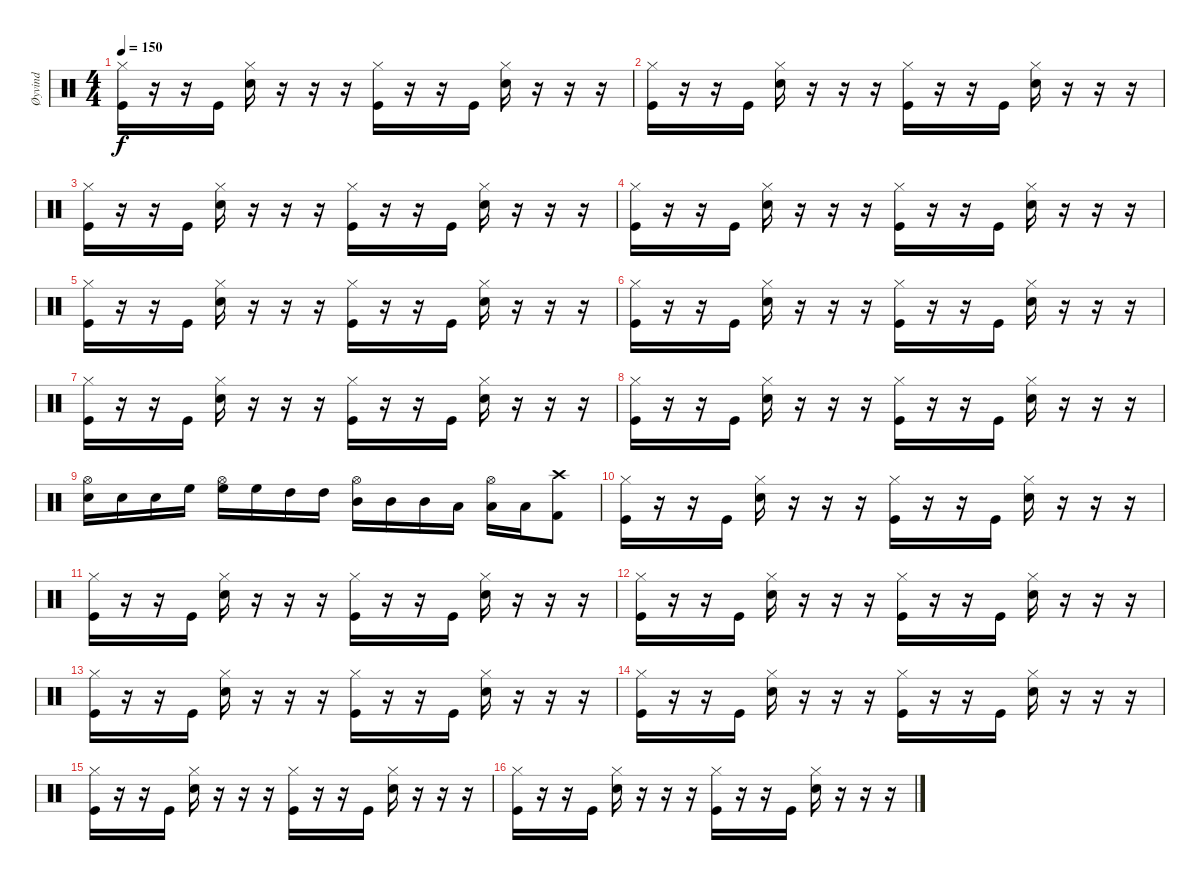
\track ("Øyvind" "Øyvind") {instrument percussion}
\staff {score}
\articulation defaults
\ts (4 4)
\tempo 150
\clef neutral
\ks c
("Kick (hit)" "Hi-Hat (closed)").16{dy f} r.16 r.16 "Kick (hit)".16 ("Electric Snare (hit)" "Hi-Hat (closed)").16 r.16 r.16 r.16 ("Kick (hit)" "Hi-Hat (closed)").16 r.16 r.16 "Kick (hit)".16 ("Electric Snare (hit)" "Hi-Hat (closed)").16 r.16 r.16 r.16 |
("Kick (hit)" "Hi-Hat (closed)").16 r.16 r.16 "Kick (hit)".16 ("Electric Snare (hit)" "Hi-Hat (closed)").16 r.16 r.16 r.16 ("Kick (hit)" "Hi-Hat (closed)").16 r.16 r.16 "Kick (hit)".16 ("Electric Snare (hit)" "Hi-Hat (closed)").16 r.16 r.16 r.16 |
("Kick (hit)" "Hi-Hat (closed)").16 r.16 r.16 "Kick (hit)".16 ("Electric Snare (hit)" "Hi-Hat (closed)").16 r.16 r.16 r.16 ("Kick (hit)" "Hi-Hat (closed)").16 r.16 r.16 "Kick (hit)".16 ("Electric Snare (hit)" "Hi-Hat (closed)").16 r.16 r.16 r.16 |
("Kick (hit)" "Hi-Hat (closed)").16 r.16 r.16 "Kick (hit)".16 ("Electric Snare (hit)" "Hi-Hat (closed)").16 r.16 r.16 r.16 ("Kick (hit)" "Hi-Hat (closed)").16 r.16 r.16 "Kick (hit)".16 ("Electric Snare (hit)" "Hi-Hat (closed)").16 r.16 r.16 r.16 |
("Kick (hit)" "Hi-Hat (closed)").16 r.16 r.16 "Kick (hit)".16 ("Electric Snare (hit)" "Hi-Hat (closed)").16 r.16 r.16 r.16 ("Kick (hit)" "Hi-Hat (closed)").16 r.16 r.16 "Kick (hit)".16 ("Electric Snare (hit)" "Hi-Hat (closed)").16 r.16 r.16 r.16 |
("Kick (hit)" "Hi-Hat (closed)").16 r.16 r.16 "Kick (hit)".16 ("Electric Snare (hit)" "Hi-Hat (closed)").16 r.16 r.16 r.16 ("Kick (hit)" "Hi-Hat (closed)").16 r.16 r.16 "Kick (hit)".16 ("Electric Snare (hit)" "Hi-Hat (closed)").16 r.16 r.16 r.16 |
("Kick (hit)" "Hi-Hat (closed)").16 r.16 r.16 "Kick (hit)".16 ("Electric Snare (hit)" "Hi-Hat (closed)").16 r.16 r.16 r.16 ("Kick (hit)" "Hi-Hat (closed)").16 r.16 r.16 "Kick (hit)".16 ("Electric Snare (hit)" "Hi-Hat (closed)").16 r.16 r.16 r.16 |
("Kick (hit)" "Hi-Hat (closed)").16 r.16 r.16 "Kick (hit)".16 ("Electric Snare (hit)" "Hi-Hat (closed)").16 r.16 r.16 r.16 ("Kick (hit)" "Hi-Hat (closed)").16 r.16 r.16 "Kick (hit)".16 ("Electric Snare (hit)" "Hi-Hat (closed)").16 r.16 r.16 r.16 |
("Snare (hit) 2" "Hi-Hat (open)").16 "Snare (hit) 2".16 "Snare (hit) 2".16 "High Floor Tom (hit)".16 ("Hi-Hat (open)" "High Floor Tom (hit)").16 "High Floor Tom (hit)".16 "High Tom (hit)".16 "High Tom (hit)".16 ("Hi-Hat (open)" "Mid Tom (hit)").16 "Mid Tom (hit)".16 "Mid Tom (hit)".16 "Low Tom (hit)".16 ("Low Tom (hit)" "Hi-Hat (open)").16 "Low Tom (hit)".16 ("Kick (hit) 2" "Crash high (hit)").8 |
("Kick (hit)" "Hi-Hat (closed)").16 r.16 r.16 "Kick (hit)".16 ("Electric Snare (hit)" "Hi-Hat (closed)").16 r.16 r.16 r.16 ("Kick (hit)" "Hi-Hat (closed)").16 r.16 r.16 "Kick (hit)".16 ("Electric Snare (hit)" "Hi-Hat (closed)").16 r.16 r.16 r.16 |
("Kick (hit)" "Hi-Hat (closed)").16 r.16 r.16 "Kick (hit)".16 ("Electric Snare (hit)" "Hi-Hat (closed)").16 r.16 r.16 r.16 ("Kick (hit)" "Hi-Hat (closed)").16 r.16 r.16 "Kick (hit)".16 ("Electric Snare (hit)" "Hi-Hat (closed)").16 r.16 r.16 r.16 |
("Kick (hit)" "Hi-Hat (closed)").16 r.16 r.16 "Kick (hit)".16 ("Electric Snare (hit)" "Hi-Hat (closed)").16 r.16 r.16 r.16 ("Kick (hit)" "Hi-Hat (closed)").16 r.16 r.16 "Kick (hit)".16 ("Electric Snare (hit)" "Hi-Hat (closed)").16 r.16 r.16 r.16 |
("Kick (hit)" "Hi-Hat (closed)").16 r.16 r.16 "Kick (hit)".16 ("Electric Snare (hit)" "Hi-Hat (closed)").16 r.16 r.16 r.16 ("Kick (hit)" "Hi-Hat (closed)").16 r.16 r.16 "Kick (hit)".16 ("Electric Snare (hit)" "Hi-Hat (closed)").16 r.16 r.16 r.16 |
("Kick (hit)" "Hi-Hat (closed)").16 r.16 r.16 "Kick (hit)".16 ("Electric Snare (hit)" "Hi-Hat (closed)").16 r.16 r.16 r.16 ("Kick (hit)" "Hi-Hat (closed)").16 r.16 r.16 "Kick (hit)".16 ("Electric Snare (hit)" "Hi-Hat (closed)").16 r.16 r.16 r.16 |
("Kick (hit)" "Hi-Hat (closed)").16 r.16 r.16 "Kick (hit)".16 ("Electric Snare (hit)" "Hi-Hat (closed)").16 r.16 r.16 r.16 ("Kick (hit)" "Hi-Hat (closed)").16 r.16 r.16 "Kick (hit)".16 ("Electric Snare (hit)" "Hi-Hat (closed)").16 r.16 r.16 r.16 |
("Kick (hit)" "Hi-Hat (closed)").16 r.16 r.16 "Kick (hit)".16 ("Electric Snare (hit)" "Hi-Hat (closed)").16 r.16 r.16 r.16 ("Kick (hit)" "Hi-Hat (closed)").16 r.16 r.16 "Kick (hit)".16 ("Electric Snare (hit)" "Hi-Hat (closed)").16 r.16 r.16 r.16
